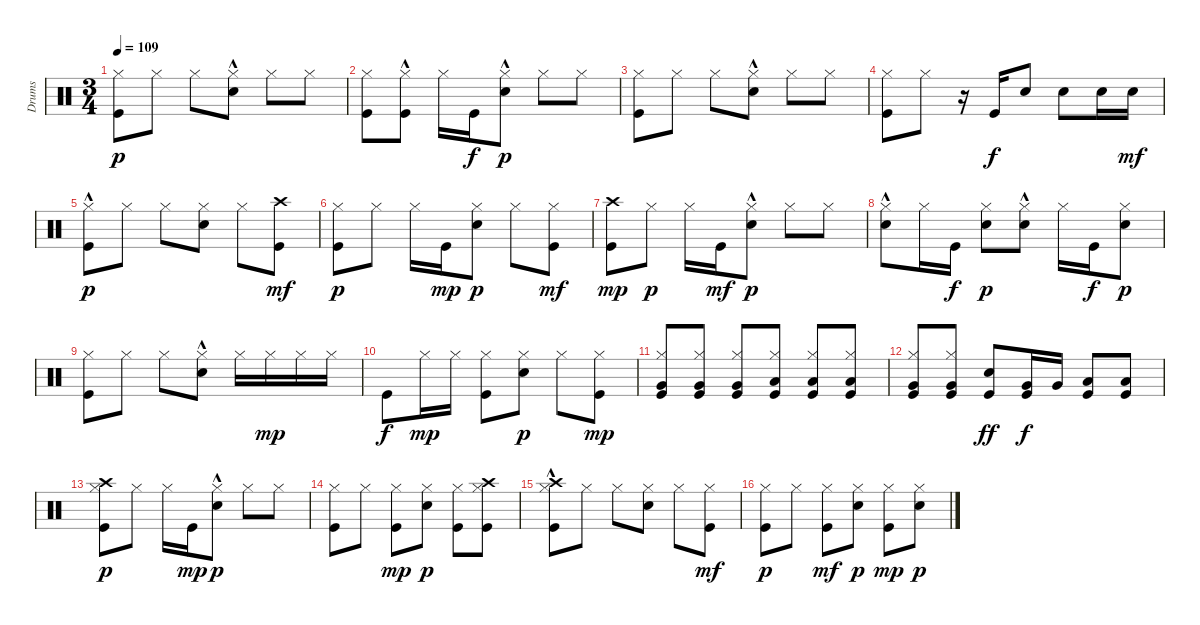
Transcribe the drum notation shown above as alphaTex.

\track ("Drums" "Drums") {instrument percussion}
\staff {score}
\articulation defaults
\ts (3 4)
\tempo 109
\clef neutral
\ks c
("Kick (hit)" "Hi-Hat (closed)").8{dy p} "Hi-Hat (closed)".8 "Hi-Hat (closed)".8 ("Electric Snare (hit)"{hac} "Hi-Hat (closed)").8 "Hi-Hat (closed)".8 "Hi-Hat (closed)".8 |
("Hi-Hat (closed)" "Kick (hit)").8 ("Hi-Hat (closed)" "Kick (hit)"{hac}).8 "Hi-Hat (closed)".16 "Kick (hit)".16{dy f} ("Hi-Hat (closed)" "Electric Snare (hit)"{hac}).8{dy p} "Hi-Hat (closed)".8 "Hi-Hat (closed)".8 |
("Hi-Hat (closed)" "Kick (hit)").8 "Hi-Hat (closed)".8 "Hi-Hat (closed)".8 ("Hi-Hat (closed)" "Electric Snare (hit)"{hac}).8 "Hi-Hat (closed)".8 "Hi-Hat (closed)".8 |
("Hi-Hat (closed)" "Kick (hit)").8 "Hi-Hat (closed)".8 r.16 "Kick (hit)".16{dy f} "Electric Snare (hit)".8 "Electric Snare (hit)".8 "Electric Snare (hit)".16 "Electric Snare (hit)".16{dy mf} |
("Hi-Hat (closed)" "Kick (hit)"{hac}).8{dy p} "Hi-Hat (closed)".8 "Hi-Hat (closed)".8 ("Hi-Hat (closed)" "Electric Snare (hit)").8 "Hi-Hat (closed)".8 ("Crash high (hit)" "Kick (hit)").8{dy mf} |
("Hi-Hat (closed)" "Kick (hit)").8{dy p} "Hi-Hat (closed)".8 "Hi-Hat (closed)".16 "Kick (hit)".16{dy mp} ("Hi-Hat (closed)" "Electric Snare (hit)").8{dy p} "Hi-Hat (closed)".8 ("Hi-Hat (closed)" "Kick (hit)").8{dy mf} |
("Crash high (hit)" "Kick (hit)").8{dy mp} "Hi-Hat (closed)".8{dy p} "Hi-Hat (closed)".16 "Kick (hit)".16{dy mf} ("Hi-Hat (closed)" "Electric Snare (hit)"{hac}).8{dy p} "Hi-Hat (closed)".8 "Hi-Hat (closed)".8 |
("Hi-Hat (closed)" "Electric Snare (hit)"{hac}).8 "Hi-Hat (closed)".16 "Kick (hit)".16{dy f} ("Hi-Hat (closed)" "Electric Snare (hit)").8{dy p} ("Hi-Hat (closed)" "Electric Snare (hit)"{hac}).8 "Hi-Hat (closed)".16 "Kick (hit)".16{dy f} ("Hi-Hat (closed)" "Electric Snare (hit)").8{dy p} |
("Hi-Hat (closed)" "Kick (hit)").8 "Hi-Hat (closed)".8 "Hi-Hat (closed)".8 ("Hi-Hat (closed)" "Electric Snare (hit)"{hac}).8 "Hi-Hat (closed)".16 "Hi-Hat (closed)".16{dy mp} "Hi-Hat (closed)".16 "Hi-Hat (closed)".16 |
"Kick (hit)".8{dy f} "Hi-Hat (closed)".16{dy mp} "Hi-Hat (closed)".16 ("Kick (hit)" "Hi-Hat (closed)").8 ("Hi-Hat (closed)" "Electric Snare (hit)").8{dy p} "Hi-Hat (closed)".8 ("Hi-Hat (closed)" "Kick (hit)").8{dy mp} |
("Hi-Hat (closed)" "Kick (hit)" "Very Low Tom (hit)").8 ("Hi-Hat (closed)" "Kick (hit)" "Very Low Tom (hit)").8 ("Hi-Hat (closed)" "Kick (hit)" "Very Low Tom (hit)").8 ("Hi-Hat (closed)" "Kick (hit)" "Low Floor Tom (hit)").8 ("Hi-Hat (closed)" "Kick (hit)" "Low Floor Tom (hit)").8 ("Hi-Hat (closed)" "Kick (hit)" "Low Floor Tom (hit)").8 |
("Hi-Hat (closed)" "Very Low Tom (hit)" "Kick (hit)").8 ("Hi-Hat (closed)" "Very Low Tom (hit)" "Kick (hit)").8 ("Electric Snare (hit)" "Kick (hit)").8{dy ff} ("Kick (hit)" "Very Low Tom (hit)").16{dy f} "Very Low Tom (hit)".16 ("Kick (hit)" "Low Floor Tom (hit)").8 ("Kick (hit)" "Low Floor Tom (hit)").8 |
("Crash high (hit)" "Hi-Hat (closed)" "Kick (hit)").8{dy p} "Hi-Hat (closed)".8 "Hi-Hat (closed)".16 "Kick (hit)".16{dy mp} ("Hi-Hat (closed)" "Electric Snare (hit)"{hac}).8{dy p} "Hi-Hat (closed)".8 "Hi-Hat (closed)".8 |
("Hi-Hat (closed)" "Kick (hit)").8 "Hi-Hat (closed)".8 ("Hi-Hat (closed)" "Kick (hit)").8{dy mp} ("Hi-Hat (closed)" "Electric Snare (hit)").8{dy p} ("Hi-Hat (closed)" "Kick (hit)").8 ("Crash high (hit)" "Hi-Hat (closed)" "Kick (hit)").8 |
("Crash high (hit)" "Hi-Hat (closed)" "Kick (hit)"{hac}).8 "Hi-Hat (closed)".8 "Hi-Hat (closed)".8 ("Hi-Hat (closed)" "Electric Snare (hit)").8 "Hi-Hat (closed)".8 ("Hi-Hat (closed)" "Kick (hit)").8{dy mf} |
("Hi-Hat (closed)" "Kick (hit)").8{dy p} "Hi-Hat (closed)".8 ("Hi-Hat (closed)" "Kick (hit)").8{dy mf} ("Hi-Hat (closed)" "Electric Snare (hit)").8{dy p} ("Hi-Hat (closed)" "Kick (hit)").8{dy mp} ("Hi-Hat (closed)" "Electric Snare (hit)").8{dy p}
